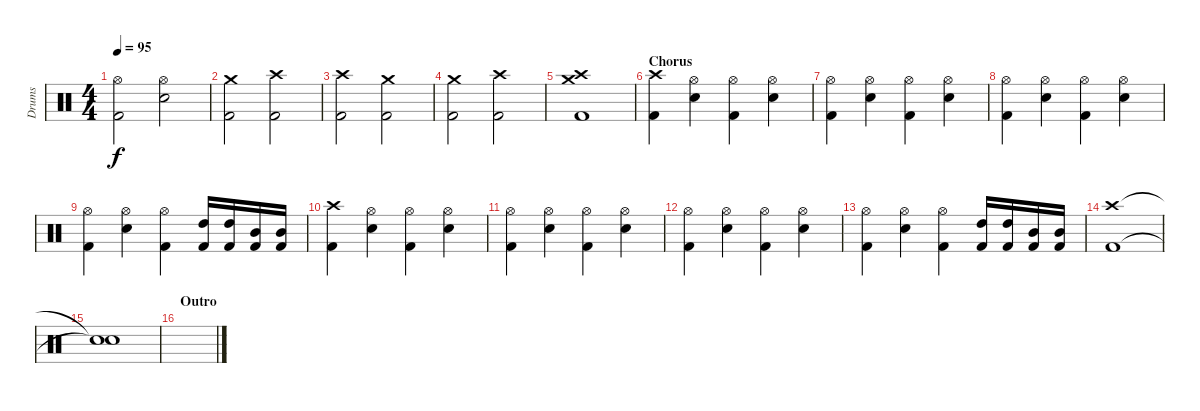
\track ("Drums" "Drums") {instrument percussion}
\staff {score}
\articulation defaults
\ts (4 4)
\tempo 95
\clef neutral
\ks c
("Hi-Hat (open)" "Kick (hit) 2").2{dy f} ("Hi-Hat (open)" "Electric Snare (hit)").2 |
("Crash medium (hit)" "Kick (hit) 2").2 ("Crash high (hit)" "Kick (hit) 2").2 |
("Crash high (hit)" "Kick (hit) 2").2 ("Crash medium (hit)" "Kick (hit) 2").2 |
("Crash medium (hit)" "Kick (hit) 2").2 ("Crash high (hit)" "Kick (hit) 2").2 |
("Crash high (hit)" "Crash medium (hit)" "Kick (hit) 2").1 |
\section ("" "Chorus")
("Crash high (hit)" "Kick (hit) 2").4 ("Hi-Hat (open)" "Electric Snare (hit)").4 ("Hi-Hat (open)" "Kick (hit) 2").4 ("Hi-Hat (open)" "Electric Snare (hit)").4 |
("Hi-Hat (open)" "Kick (hit) 2").4 ("Hi-Hat (open)" "Electric Snare (hit)").4 ("Hi-Hat (open)" "Kick (hit) 2").4 ("Hi-Hat (open)" "Electric Snare (hit)").4 |
("Hi-Hat (open)" "Kick (hit) 2").4 ("Hi-Hat (open)" "Electric Snare (hit)").4 ("Hi-Hat (open)" "Kick (hit) 2").4 ("Hi-Hat (open)" "Electric Snare (hit)").4 |
("Hi-Hat (open)" "Kick (hit) 2").4 ("Hi-Hat (open)" "Electric Snare (hit)").4 ("Hi-Hat (open)" "Kick (hit) 2").4 ("High Tom (hit)" "Kick (hit) 2").16 ("High Tom (hit)" "Kick (hit) 2").16 ("Mid Tom (hit)" "Kick (hit) 2").16 ("Mid Tom (hit)" "Kick (hit) 2").16 |
("Crash high (hit)" "Kick (hit) 2").4 ("Hi-Hat (open)" "Electric Snare (hit)").4 ("Hi-Hat (open)" "Kick (hit) 2").4 ("Hi-Hat (open)" "Electric Snare (hit)").4 |
("Hi-Hat (open)" "Kick (hit) 2").4 ("Hi-Hat (open)" "Electric Snare (hit)").4 ("Hi-Hat (open)" "Kick (hit) 2").4 ("Hi-Hat (open)" "Electric Snare (hit)").4 |
("Hi-Hat (open)" "Kick (hit) 2").4 ("Hi-Hat (open)" "Electric Snare (hit)").4 ("Hi-Hat (open)" "Kick (hit) 2").4 ("Hi-Hat (open)" "Electric Snare (hit)").4 |
("Hi-Hat (open)" "Kick (hit) 2").4 ("Hi-Hat (open)" "Electric Snare (hit)").4 ("Hi-Hat (open)" "Kick (hit) 2").4 ("High Tom (hit)" "Kick (hit) 2").16 ("High Tom (hit)" "Kick (hit) 2").16 ("Mid Tom (hit)" "Kick (hit) 2").16 ("Mid Tom (hit)" "Kick (hit) 2").16 |
("Crash high (hit)" "Kick (hit) 2").1 |
("Snare (hit)"{t} "Snare (hit)"{t}).1 |
\section ("" "Outro")
